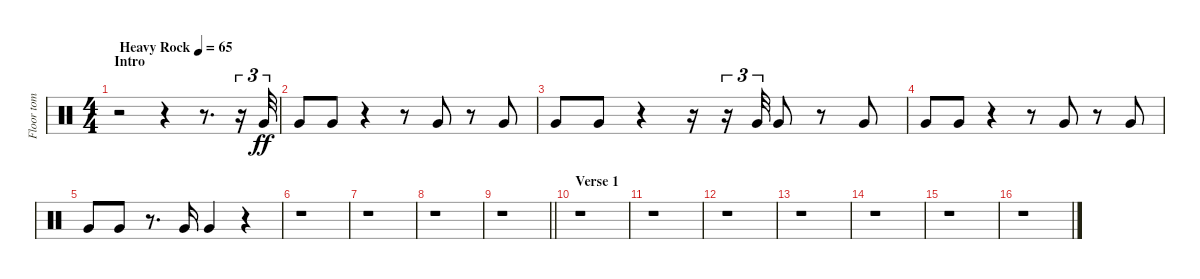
\track ("Floor tom" "Floor tom") {instrument percussion}
\staff {score}
\articulation defaults
\ts (4 4)
\section ("" "Intro")
\tempo (65 "Heavy Rock")
\clef neutral
\ks c
r.2{dy ff balance 5} r.4 r.8{d} r.16{tu (3 2)} "Very Low Tom (hit)".32{tu (3 2)} |
"Very Low Tom (hit)".8 "Very Low Tom (hit)".8 r.4 r.8 "Very Low Tom (hit)".8 r.8 "Very Low Tom (hit)".8 |
"Very Low Tom (hit)".8 "Very Low Tom (hit)".8 r.4 r.16 r.16{tu (3 2)} "Very Low Tom (hit)".32{tu (3 2)} "Very Low Tom (hit)".8 r.8 "Very Low Tom (hit)".8 |
"Very Low Tom (hit)".8 "Very Low Tom (hit)".8 r.4 r.8 "Very Low Tom (hit)".8 r.8 "Very Low Tom (hit)".8 |
"Very Low Tom (hit)".8 "Very Low Tom (hit)".8 r.8{d} "Very Low Tom (hit)".16 "Very Low Tom (hit)".4 r.4 |
r.1 |
r.1 |
r.1 |
\barLineRight lightlight
r.1 |
\section ("" "Verse 1")
r.1 |
r.1 |
r.1 |
r.1 |
r.1 |
r.1 |
r.1
